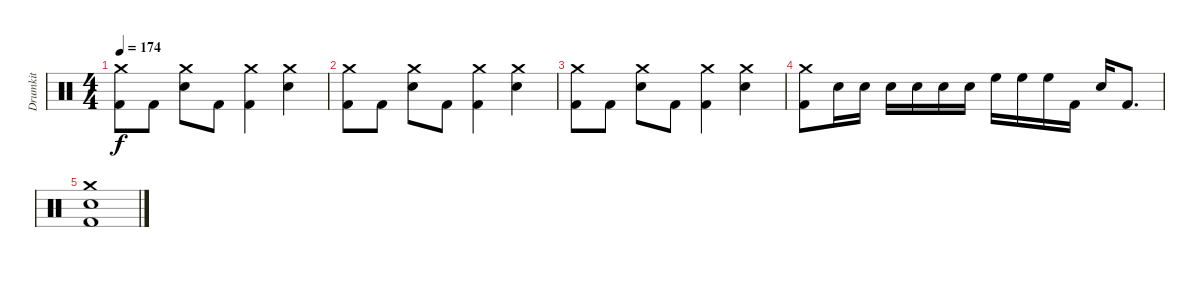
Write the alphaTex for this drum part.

\track ("Drumkit" "Drumkit") {instrument percussion}
\staff {score}
\articulation defaults
\ts (4 4)
\tempo 174
\clef neutral
\ks c
("Crash medium (hit)" "Kick (hit) 2").8{dy f} "Kick (hit) 2".8 ("Crash medium (hit)" "Snare (hit) 2").8 "Kick (hit) 2".8 ("Crash medium (hit)" "Kick (hit) 2").4 ("Crash medium (hit)" "Snare (hit) 2").4 |
("Crash medium (hit)" "Kick (hit) 2").8 "Kick (hit) 2".8 ("Crash medium (hit)" "Snare (hit) 2").8 "Kick (hit) 2".8 ("Crash medium (hit)" "Kick (hit) 2").4 ("Crash medium (hit)" "Snare (hit) 2").4 |
("Crash medium (hit)" "Kick (hit) 2").8 "Kick (hit) 2".8 ("Crash medium (hit)" "Snare (hit) 2").8 "Kick (hit) 2".8 ("Crash medium (hit)" "Kick (hit) 2").4 ("Crash medium (hit)" "Snare (hit) 2").4 |
("Crash medium (hit)" "Kick (hit) 2").8 "Snare (hit) 2".16 "Snare (hit) 2".16 "Snare (hit) 2".16 "Snare (hit) 2".16 "Snare (hit) 2".16 "Snare (hit) 2".16 "High Floor Tom (hit)".16 "High Floor Tom (hit)".16 "High Floor Tom (hit)".16 "Kick (hit) 2".16 "Snare (hit) 2".16 "Kick (hit) 2".8{d} |
("Crash medium (hit)" "Snare (hit) 2" "Kick (hit) 2").1
